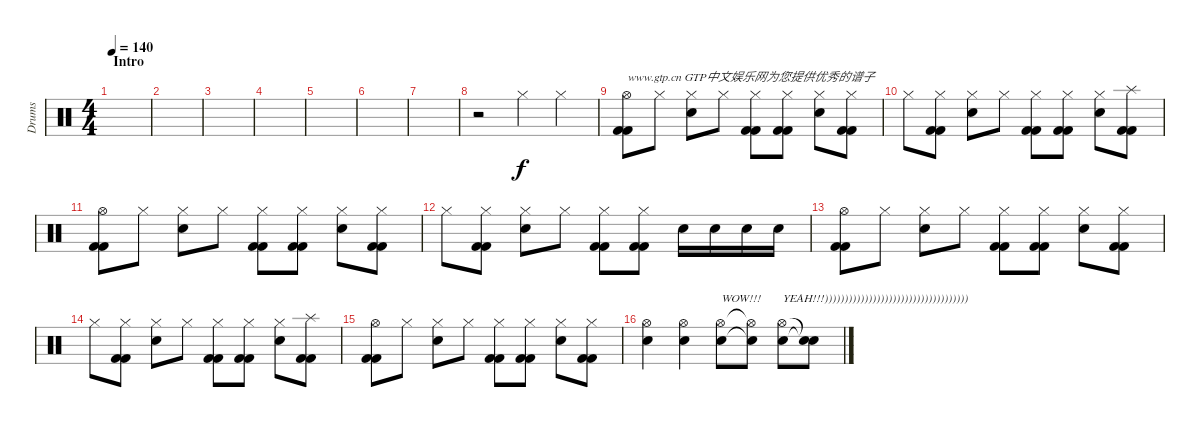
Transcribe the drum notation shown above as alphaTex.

\track ("Drums" "Drums") {instrument percussion}
\staff {score}
\articulation defaults
\ts (4 4)
\section ("" "Intro")
\tempo 140
\clef neutral
\ks c
|
|
|
|
|
|
|
r.2 "Hi-Hat (closed)".4 "Hi-Hat (closed)".4 |
("Hi-Hat (open)" "Kick (hit) 2" "Kick (hit) 2").8{txt "www.gtp.cn GTP中文娱乐网为您提供优秀的谱子"} "Hi-Hat (closed)".8 ("Hi-Hat (closed)" "Electric Snare (hit)").8 "Hi-Hat (closed)".8 ("Hi-Hat (closed)" "Kick (hit) 2" "Kick (hit) 2").8 ("Hi-Hat (closed)" "Kick (hit) 2" "Kick (hit) 2").8 ("Hi-Hat (closed)" "Electric Snare (hit)").8 ("Hi-Hat (closed)" "Kick (hit) 2" "Kick (hit) 2").8 |
"Hi-Hat (closed)".8 ("Hi-Hat (closed)" "Kick (hit) 2" "Kick (hit) 2").8 ("Hi-Hat (closed)" "Electric Snare (hit)").8 "Hi-Hat (closed)".8 ("Hi-Hat (closed)" "Kick (hit) 2" "Kick (hit) 2").8 ("Hi-Hat (closed)" "Kick (hit) 2" "Kick (hit) 2").8 ("Hi-Hat (closed)" "Electric Snare (hit)").8 ("Splash (hit)" "Kick (hit) 2" "Kick (hit) 2").8 |
("Hi-Hat (open)" "Kick (hit) 2" "Kick (hit) 2").8 "Hi-Hat (closed)".8 ("Hi-Hat (closed)" "Electric Snare (hit)").8 "Hi-Hat (closed)".8 ("Hi-Hat (closed)" "Kick (hit) 2" "Kick (hit) 2").8 ("Hi-Hat (closed)" "Kick (hit) 2" "Kick (hit) 2").8 ("Hi-Hat (closed)" "Electric Snare (hit)").8 ("Hi-Hat (closed)" "Kick (hit) 2" "Kick (hit) 2").8 |
"Hi-Hat (closed)".8 ("Hi-Hat (closed)" "Kick (hit) 2" "Kick (hit) 2").8 ("Hi-Hat (closed)" "Electric Snare (hit)").8 "Hi-Hat (closed)".8 ("Hi-Hat (closed)" "Kick (hit) 2" "Kick (hit) 2").8 ("Hi-Hat (closed)" "Kick (hit) 2" "Kick (hit) 2").8 "Electric Snare (hit)".16 "Electric Snare (hit)".16 "Electric Snare (hit)".16 "Electric Snare (hit)".16 |
("Hi-Hat (open)" "Kick (hit) 2" "Kick (hit) 2").8 "Hi-Hat (closed)".8 ("Hi-Hat (closed)" "Electric Snare (hit)").8 "Hi-Hat (closed)".8 ("Hi-Hat (closed)" "Kick (hit) 2" "Kick (hit) 2").8 ("Hi-Hat (closed)" "Kick (hit) 2" "Kick (hit) 2").8 ("Hi-Hat (closed)" "Electric Snare (hit)").8 ("Hi-Hat (closed)" "Kick (hit) 2" "Kick (hit) 2").8 |
"Hi-Hat (closed)".8 ("Hi-Hat (closed)" "Kick (hit) 2" "Kick (hit) 2").8 ("Hi-Hat (closed)" "Electric Snare (hit)").8 "Hi-Hat (closed)".8 ("Hi-Hat (closed)" "Kick (hit) 2" "Kick (hit) 2").8 ("Hi-Hat (closed)" "Kick (hit) 2" "Kick (hit) 2").8 ("Hi-Hat (closed)" "Electric Snare (hit)").8 ("Splash (hit)" "Kick (hit) 2" "Kick (hit) 2").8 |
("Hi-Hat (open)" "Kick (hit) 2" "Kick (hit) 2").8 "Hi-Hat (closed)".8 ("Hi-Hat (closed)" "Electric Snare (hit)").8 "Hi-Hat (closed)".8 ("Hi-Hat (closed)" "Kick (hit) 2" "Kick (hit) 2").8 ("Hi-Hat (closed)" "Kick (hit) 2" "Kick (hit) 2").8 ("Hi-Hat (closed)" "Electric Snare (hit)").8 ("Hi-Hat (closed)" "Kick (hit) 2" "Kick (hit) 2").8 |
("Hi-Hat (open)" "Electric Snare (hit)").4 ("Hi-Hat (open)" "Electric Snare (hit)").4 ("Hi-Hat (open)" "Electric Snare (hit)").8{txt "WOW!!!"} ("Hi-Hat (open)"{t} "Electric Snare (hit)"{t}).8 ("Hi-Hat (open)" "Electric Snare (hit)").8{txt "YEAH!!!))))))))))))))))))))))))))))))))))))"} ("Snare (hit)"{t} "Snare (hit)"{t}).8
